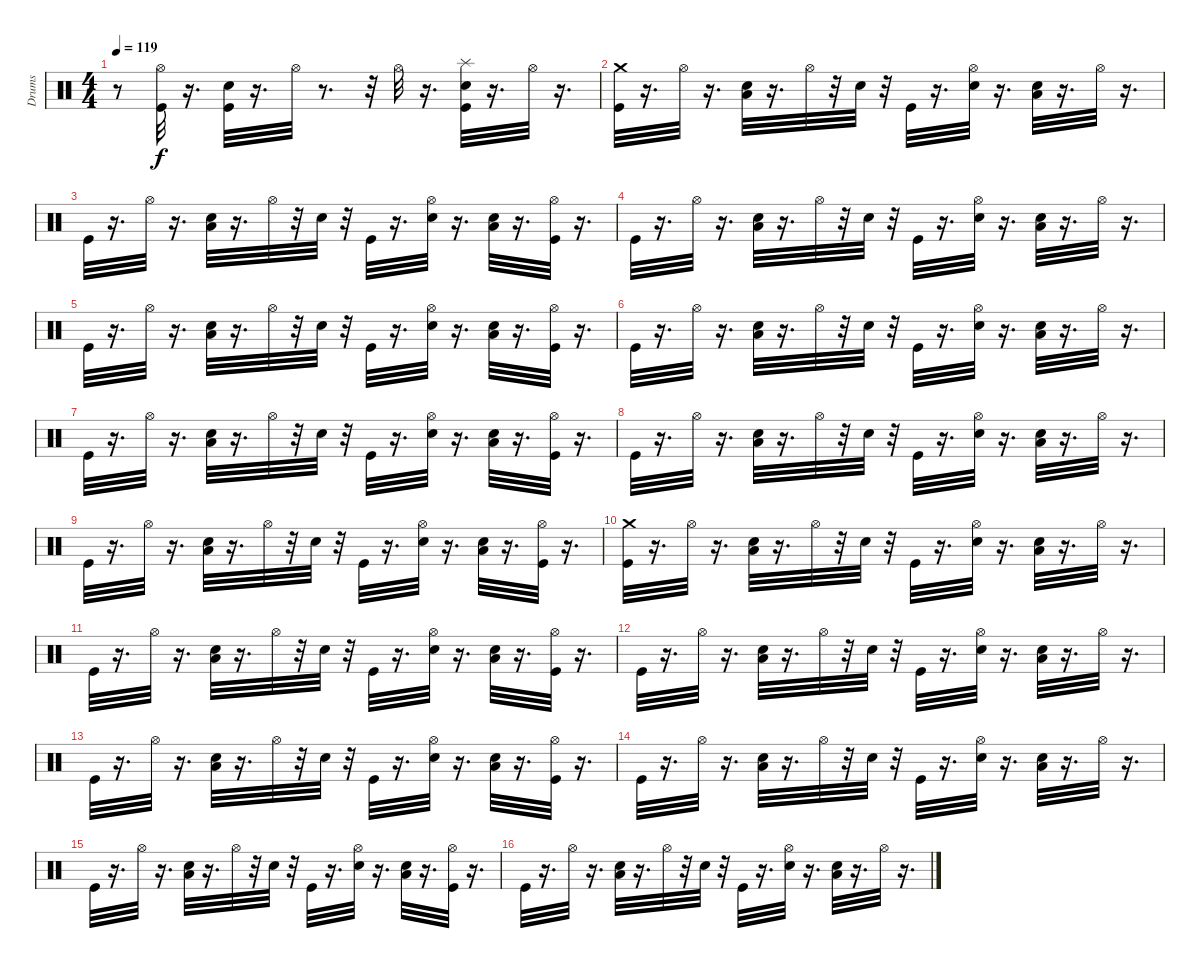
\track ("Drums" "Drums") {instrument percussion}
\staff {score}
\articulation defaults
\ts (4 4)
\tempo 119
\clef neutral
\ks c
r.8{dy f} ("Kick (hit)" "Hi-Hat (open)").32 r.16{d} ("Hand Clap (hit)" "Kick (hit)").32 r.16{d} "Hi-Hat (open)".32 r.8{d} r.32 "Hi-Hat (open)".32 r.16{d} ("Splash (hit)" "Hand Clap (hit)" "Kick (hit)").32 r.16{d} "Hi-Hat (open)".32 r.16{d} |
("Crash medium (hit)" "Kick (hit)").32 r.16{d} "Hi-Hat (open)".32 r.16{d} ("Low Floor Tom (hit)" "Hand Clap (hit)").32 r.16{d} "Hi-Hat (open)".32 r.32 "Hand Clap (hit)".32 r.32 "Kick (hit)".32 r.16{d} ("Hi-Hat (open)" "Hand Clap (hit)").32 r.16{d} ("Low Floor Tom (hit)" "Hand Clap (hit)").32 r.16{d} "Hi-Hat (open)".32 r.16{d} |
"Kick (hit)".32 r.16{d} "Hi-Hat (open)".32 r.16{d} ("Low Floor Tom (hit)" "Hand Clap (hit)").32 r.16{d} "Hi-Hat (open)".32 r.32 "Hand Clap (hit)".32 r.32 "Kick (hit)".32 r.16{d} ("Hi-Hat (open)" "Hand Clap (hit)").32 r.16{d} ("Low Floor Tom (hit)" "Hand Clap (hit)").32 r.16{d} ("Kick (hit)" "Hi-Hat (open)").32 r.16{d} |
"Kick (hit)".32 r.16{d} "Hi-Hat (open)".32 r.16{d} ("Low Floor Tom (hit)" "Hand Clap (hit)").32 r.16{d} "Hi-Hat (open)".32 r.32 "Hand Clap (hit)".32 r.32 "Kick (hit)".32 r.16{d} ("Hi-Hat (open)" "Hand Clap (hit)").32 r.16{d} ("Low Floor Tom (hit)" "Hand Clap (hit)").32 r.16{d} "Hi-Hat (open)".32 r.16{d} |
"Kick (hit)".32 r.16{d} "Hi-Hat (open)".32 r.16{d} ("Low Floor Tom (hit)" "Hand Clap (hit)").32 r.16{d} "Hi-Hat (open)".32 r.32 "Hand Clap (hit)".32 r.32 "Kick (hit)".32 r.16{d} ("Hi-Hat (open)" "Hand Clap (hit)").32 r.16{d} ("Low Floor Tom (hit)" "Hand Clap (hit)").32 r.16{d} ("Kick (hit)" "Hi-Hat (open)").32 r.16{d} |
"Kick (hit)".32 r.16{d} "Hi-Hat (open)".32 r.16{d} ("Low Floor Tom (hit)" "Hand Clap (hit)").32 r.16{d} "Hi-Hat (open)".32 r.32 "Hand Clap (hit)".32 r.32 "Kick (hit)".32 r.16{d} ("Hi-Hat (open)" "Hand Clap (hit)").32 r.16{d} ("Low Floor Tom (hit)" "Hand Clap (hit)").32 r.16{d} "Hi-Hat (open)".32 r.16{d} |
"Kick (hit)".32 r.16{d} "Hi-Hat (open)".32 r.16{d} ("Low Floor Tom (hit)" "Hand Clap (hit)").32 r.16{d} "Hi-Hat (open)".32 r.32 "Hand Clap (hit)".32 r.32 "Kick (hit)".32 r.16{d} ("Hi-Hat (open)" "Hand Clap (hit)").32 r.16{d} ("Low Floor Tom (hit)" "Hand Clap (hit)").32 r.16{d} ("Kick (hit)" "Hi-Hat (open)").32 r.16{d} |
"Kick (hit)".32 r.16{d} "Hi-Hat (open)".32 r.16{d} ("Low Floor Tom (hit)" "Hand Clap (hit)").32 r.16{d} "Hi-Hat (open)".32 r.32 "Hand Clap (hit)".32 r.32 "Kick (hit)".32 r.16{d} ("Hi-Hat (open)" "Hand Clap (hit)").32 r.16{d} ("Low Floor Tom (hit)" "Hand Clap (hit)").32 r.16{d} "Hi-Hat (open)".32 r.16{d} |
"Kick (hit)".32 r.16{d} "Hi-Hat (open)".32 r.16{d} ("Low Floor Tom (hit)" "Hand Clap (hit)").32 r.16{d} "Hi-Hat (open)".32 r.32 "Hand Clap (hit)".32 r.32 "Kick (hit)".32 r.16{d} ("Hi-Hat (open)" "Hand Clap (hit)").32 r.16{d} ("Low Floor Tom (hit)" "Hand Clap (hit)").32 r.16{d} ("Kick (hit)" "Hi-Hat (open)").32 r.16{d} |
("Crash medium (hit)" "Kick (hit)").32 r.16{d} "Hi-Hat (open)".32 r.16{d} ("Low Floor Tom (hit)" "Hand Clap (hit)").32 r.16{d} "Hi-Hat (open)".32 r.32 "Hand Clap (hit)".32 r.32 "Kick (hit)".32 r.16{d} ("Hi-Hat (open)" "Hand Clap (hit)").32 r.16{d} ("Low Floor Tom (hit)" "Hand Clap (hit)").32 r.16{d} "Hi-Hat (open)".32 r.16{d} |
"Kick (hit)".32 r.16{d} "Hi-Hat (open)".32 r.16{d} ("Low Floor Tom (hit)" "Hand Clap (hit)").32 r.16{d} "Hi-Hat (open)".32 r.32 "Hand Clap (hit)".32 r.32 "Kick (hit)".32 r.16{d} ("Hi-Hat (open)" "Hand Clap (hit)").32 r.16{d} ("Low Floor Tom (hit)" "Hand Clap (hit)").32 r.16{d} ("Kick (hit)" "Hi-Hat (open)").32 r.16{d} |
"Kick (hit)".32 r.16{d} "Hi-Hat (open)".32 r.16{d} ("Low Floor Tom (hit)" "Hand Clap (hit)").32 r.16{d} "Hi-Hat (open)".32 r.32 "Hand Clap (hit)".32 r.32 "Kick (hit)".32 r.16{d} ("Hi-Hat (open)" "Hand Clap (hit)").32 r.16{d} ("Low Floor Tom (hit)" "Hand Clap (hit)").32 r.16{d} "Hi-Hat (open)".32 r.16{d} |
"Kick (hit)".32 r.16{d} "Hi-Hat (open)".32 r.16{d} ("Low Floor Tom (hit)" "Hand Clap (hit)").32 r.16{d} "Hi-Hat (open)".32 r.32 "Hand Clap (hit)".32 r.32 "Kick (hit)".32 r.16{d} ("Hi-Hat (open)" "Hand Clap (hit)").32 r.16{d} ("Low Floor Tom (hit)" "Hand Clap (hit)").32 r.16{d} ("Kick (hit)" "Hi-Hat (open)").32 r.16{d} |
"Kick (hit)".32 r.16{d} "Hi-Hat (open)".32 r.16{d} ("Low Floor Tom (hit)" "Hand Clap (hit)").32 r.16{d} "Hi-Hat (open)".32 r.32 "Hand Clap (hit)".32 r.32 "Kick (hit)".32 r.16{d} ("Hi-Hat (open)" "Hand Clap (hit)").32 r.16{d} ("Low Floor Tom (hit)" "Hand Clap (hit)").32 r.16{d} "Hi-Hat (open)".32 r.16{d} |
"Kick (hit)".32 r.16{d} "Hi-Hat (open)".32 r.16{d} ("Low Floor Tom (hit)" "Hand Clap (hit)").32 r.16{d} "Hi-Hat (open)".32 r.32 "Hand Clap (hit)".32 r.32 "Kick (hit)".32 r.16{d} ("Hi-Hat (open)" "Hand Clap (hit)").32 r.16{d} ("Low Floor Tom (hit)" "Hand Clap (hit)").32 r.16{d} ("Kick (hit)" "Hi-Hat (open)").32 r.16{d} |
"Kick (hit)".32 r.16{d} "Hi-Hat (open)".32 r.16{d} ("Low Floor Tom (hit)" "Hand Clap (hit)").32 r.16{d} "Hi-Hat (open)".32 r.32 "Hand Clap (hit)".32 r.32 "Kick (hit)".32 r.16{d} ("Hi-Hat (open)" "Hand Clap (hit)").32 r.16{d} ("Low Floor Tom (hit)" "Hand Clap (hit)").32 r.16{d} "Hi-Hat (open)".32 r.16{d}
